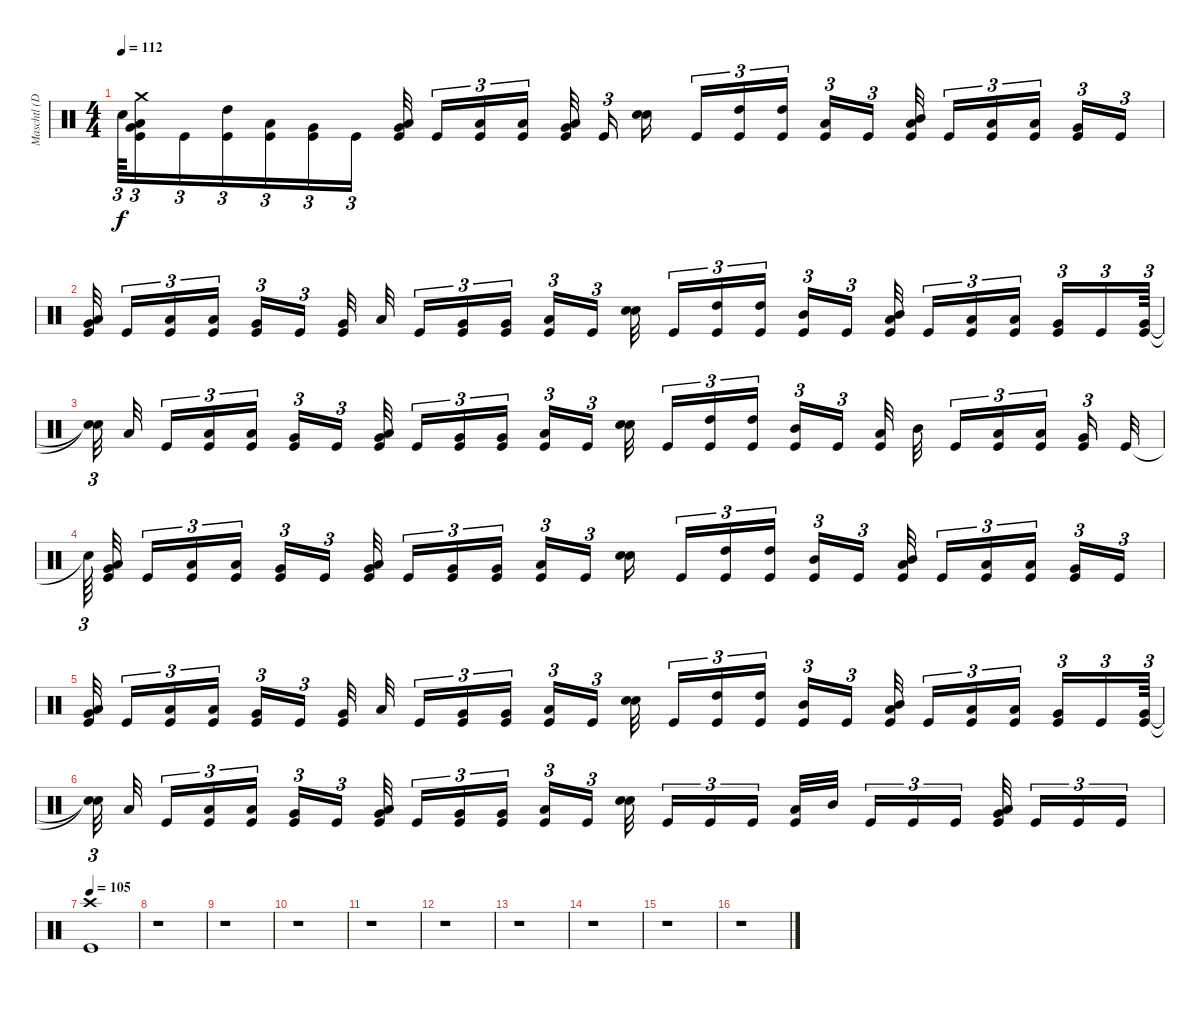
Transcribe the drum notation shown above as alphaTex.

\track ("Maschtl (Drums)" "Maschtl (D") {instrument percussion}
\staff {score}
\articulation defaults
\ts (4 4)
\tempo 112
\clef neutral
\ks c "Snare (hit)"{t}.64{tu (3 2) dy f}
("Crash medium (hit)" "Low Tom (hit)" "Very Low Tom (hit)" "Kick (hit)").16{tu (3 2)} "Kick (hit)".16{tu (3 2)} ("High Tom (hit)" "Kick (hit)").16{tu (3 2)} ("Low Tom (hit)" "Kick (hit)").16{tu (3 2)} ("Very Low Tom (hit)" "Kick (hit)").16{tu (3 2)} "Kick (hit)".16{tu (3 2)} ("Kick (hit)" "Very Low Tom (hit)" "Low Tom (hit)").32 "Kick (hit)".16{tu (3 2)} ("Low Tom (hit)" "Kick (hit)").16{tu (3 2)} ("Low Tom (hit)" "Kick (hit)").16{tu (3 2)} ("Kick (hit)" "Very Low Tom (hit)" "Low Tom (hit)").32 "Kick (hit)".16{tu (3 2)} ("Electric Snare (hit)" "Electric Snare (hit)").16 "Kick (hit)".16{tu (3 2)} ("High Tom (hit)" "Kick (hit)").16{tu (3 2)} ("High Tom (hit)" "Kick (hit)").16{tu (3 2)} ("Low Tom (hit)" "Kick (hit)").16{tu (3 2)} "Kick (hit)".16{tu (3 2)} ("Kick (hit)" "Low Tom (hit)" "Mid Tom (hit)").32 "Kick (hit)".16{tu (3 2)} ("Low Tom (hit)" "Kick (hit)").16{tu (3 2)} ("Low Tom (hit)" "Kick (hit)").16{tu (3 2)} ("Very Low Tom (hit)" "Kick (hit)").16{tu (3 2)} "Kick (hit)".16{tu (3 2)} |
("Kick (hit)" "Very Low Tom (hit)" "Low Tom (hit)").32 "Kick (hit)".16{tu (3 2)} ("Low Tom (hit)" "Kick (hit)").16{tu (3 2)} ("Low Tom (hit)" "Kick (hit)").16{tu (3 2)} ("Very Low Tom (hit)" "Kick (hit)").16{tu (3 2)} "Kick (hit)".16{tu (3 2)} ("Kick (hit)" "Very Low Tom (hit)").32 "Low Tom (hit)".32 "Kick (hit)".16{tu (3 2)} ("Very Low Tom (hit)" "Kick (hit)").16{tu (3 2)} ("Very Low Tom (hit)" "Kick (hit)").16{tu (3 2)} ("Low Floor Tom (hit)" "Kick (hit)").16{tu (3 2)} "Kick (hit)".16{tu (3 2)} ("Electric Snare (hit)" "Electric Snare (hit)").32 "Kick (hit)".16{tu (3 2)} ("High Tom (hit)" "Kick (hit)").16{tu (3 2)} ("High Tom (hit)" "Kick (hit)").16{tu (3 2)} ("Mid Tom (hit)" "Kick (hit)").16{tu (3 2)} "Kick (hit)".16{tu (3 2)} ("Kick (hit)" "Low Tom (hit)" "Mid Tom (hit)").32 "Kick (hit)".16{tu (3 2)} ("Low Tom (hit)" "Kick (hit)").16{tu (3 2)} ("Low Tom (hit)" "Kick (hit)").16{tu (3 2)} ("Very Low Tom (hit)" "Kick (hit)").16{tu (3 2)} "Kick (hit)".16{tu (3 2)} ("Kick (hit)" "Very Low Tom (hit)").64{tu (3 2)} |
("Snare (hit)"{t} "Snare (hit)"{t}).32{tu (3 2)} "Low Tom (hit)".32 "Kick (hit)".16{tu (3 2)} ("Low Tom (hit)" "Kick (hit)").16{tu (3 2)} ("Low Tom (hit)" "Kick (hit)").16{tu (3 2)} ("Very Low Tom (hit)" "Kick (hit)").16{tu (3 2)} "Kick (hit)".16{tu (3 2)} ("Kick (hit)" "Very Low Tom (hit)" "Low Tom (hit)").32 "Kick (hit)".16{tu (3 2)} ("Very Low Tom (hit)" "Kick (hit)").16{tu (3 2)} ("Very Low Tom (hit)" "Kick (hit)").16{tu (3 2)} ("Low Floor Tom (hit)" "Kick (hit)").16{tu (3 2)} "Kick (hit)".16{tu (3 2)} ("Electric Snare (hit)" "Electric Snare (hit)").32 "Kick (hit)".16{tu (3 2)} ("High Tom (hit)" "Kick (hit)").16{tu (3 2)} ("High Tom (hit)" "Kick (hit)").16{tu (3 2)} ("Mid Tom (hit)" "Kick (hit)").16{tu (3 2)} "Kick (hit)".16{tu (3 2)} ("Kick (hit)" "Low Tom (hit)").32 "Mid Tom (hit)".32 "Kick (hit)".16{tu (3 2)} ("Low Tom (hit)" "Kick (hit)").16{tu (3 2)} ("Low Tom (hit)" "Kick (hit)").16{tu (3 2)} ("Very Low Tom (hit)" "Kick (hit)").16{tu (3 2)} "Kick (hit)".32 |
"Snare (hit)"{t}.64{tu (3 2)} ("Kick (hit)" "Very Low Tom (hit)" "Low Tom (hit)").32 "Kick (hit)".16{tu (3 2)} ("Low Tom (hit)" "Kick (hit)").16{tu (3 2)} ("Low Tom (hit)" "Kick (hit)").16{tu (3 2)} ("Very Low Tom (hit)" "Kick (hit)").16{tu (3 2)} "Kick (hit)".16{tu (3 2)} ("Kick (hit)" "Very Low Tom (hit)" "Low Tom (hit)").32 "Kick (hit)".16{tu (3 2)} ("Very Low Tom (hit)" "Kick (hit)").16{tu (3 2)} ("Very Low Tom (hit)" "Kick (hit)").16{tu (3 2)} ("Low Floor Tom (hit)" "Kick (hit)").16{tu (3 2)} "Kick (hit)".16{tu (3 2)} ("Electric Snare (hit)" "Electric Snare (hit)").16 "Kick (hit)".16{tu (3 2)} ("High Tom (hit)" "Kick (hit)").16{tu (3 2)} ("High Tom (hit)" "Kick (hit)").16{tu (3 2)} ("Mid Tom (hit)" "Kick (hit)").16{tu (3 2)} "Kick (hit)".16{tu (3 2)} ("Kick (hit)" "Low Tom (hit)" "Mid Tom (hit)").32 "Kick (hit)".16{tu (3 2)} ("Low Tom (hit)" "Kick (hit)").16{tu (3 2)} ("Low Tom (hit)" "Kick (hit)").16{tu (3 2)} ("Very Low Tom (hit)" "Kick (hit)").16{tu (3 2)} "Kick (hit)".16{tu (3 2)} |
("Kick (hit)" "Very Low Tom (hit)" "Low Tom (hit)").32 "Kick (hit)".16{tu (3 2)} ("Low Tom (hit)" "Kick (hit)").16{tu (3 2)} ("Low Tom (hit)" "Kick (hit)").16{tu (3 2)} ("Very Low Tom (hit)" "Kick (hit)").16{tu (3 2)} "Kick (hit)".16{tu (3 2)} ("Kick (hit)" "Very Low Tom (hit)").32 "Low Tom (hit)".32 "Kick (hit)".16{tu (3 2)} ("Very Low Tom (hit)" "Kick (hit)").16{tu (3 2)} ("Very Low Tom (hit)" "Kick (hit)").16{tu (3 2)} ("Low Floor Tom (hit)" "Kick (hit)").16{tu (3 2)} "Kick (hit)".16{tu (3 2)} ("Electric Snare (hit)" "Electric Snare (hit)").32 "Kick (hit)".16{tu (3 2)} ("High Tom (hit)" "Kick (hit)").16{tu (3 2)} ("High Tom (hit)" "Kick (hit)").16{tu (3 2)} ("Mid Tom (hit)" "Kick (hit)").16{tu (3 2)} "Kick (hit)".16{tu (3 2)} ("Kick (hit)" "Low Tom (hit)" "Mid Tom (hit)").32 "Kick (hit)".16{tu (3 2)} ("Low Tom (hit)" "Kick (hit)").16{tu (3 2)} ("Low Tom (hit)" "Kick (hit)").16{tu (3 2)} ("Very Low Tom (hit)" "Kick (hit)").16{tu (3 2)} "Kick (hit)".16{tu (3 2)} ("Kick (hit)" "Very Low Tom (hit)").64{tu (3 2)} |
("Snare (hit)"{t} "Snare (hit)"{t}).32{tu (3 2)} "Low Tom (hit)".32 "Kick (hit)".16{tu (3 2)} ("Low Tom (hit)" "Kick (hit)").16{tu (3 2)} ("Low Tom (hit)" "Kick (hit)").16{tu (3 2)} ("Very Low Tom (hit)" "Kick (hit)").16{tu (3 2)} "Kick (hit)".16{tu (3 2)} ("Kick (hit)" "Very Low Tom (hit)" "Low Tom (hit)").32 "Kick (hit)".16{tu (3 2)} ("Very Low Tom (hit)" "Kick (hit)").16{tu (3 2)} ("Very Low Tom (hit)" "Kick (hit)").16{tu (3 2)} ("Low Floor Tom (hit)" "Kick (hit)").16{tu (3 2)} "Kick (hit)".16{tu (3 2)} ("Electric Snare (hit)" "Electric Snare (hit)").32 "Kick (hit)".16{tu (3 2)} "Kick (hit)".16{tu (3 2)} "Kick (hit)".16{tu (3 2)} ("Kick (hit)" "Low Tom (hit)").32 "Mid Tom (hit)".32 "Kick (hit)".16{tu (3 2)} "Kick (hit)".16{tu (3 2)} "Kick (hit)".16{tu (3 2)} ("Kick (hit)" "Very Low Tom (hit)" "Low Tom (hit)").32 "Kick (hit)".16{tu (3 2)} "Kick (hit)".16{tu (3 2)} "Kick (hit)".16{tu (3 2)} |
\tempo 105
("Crash high (hit)" "Kick (hit)").1 |
r.1 |
r.1 |
r.1 |
r.1 |
r.1 |
r.1 |
r.1 |
r.1 |
r.1
